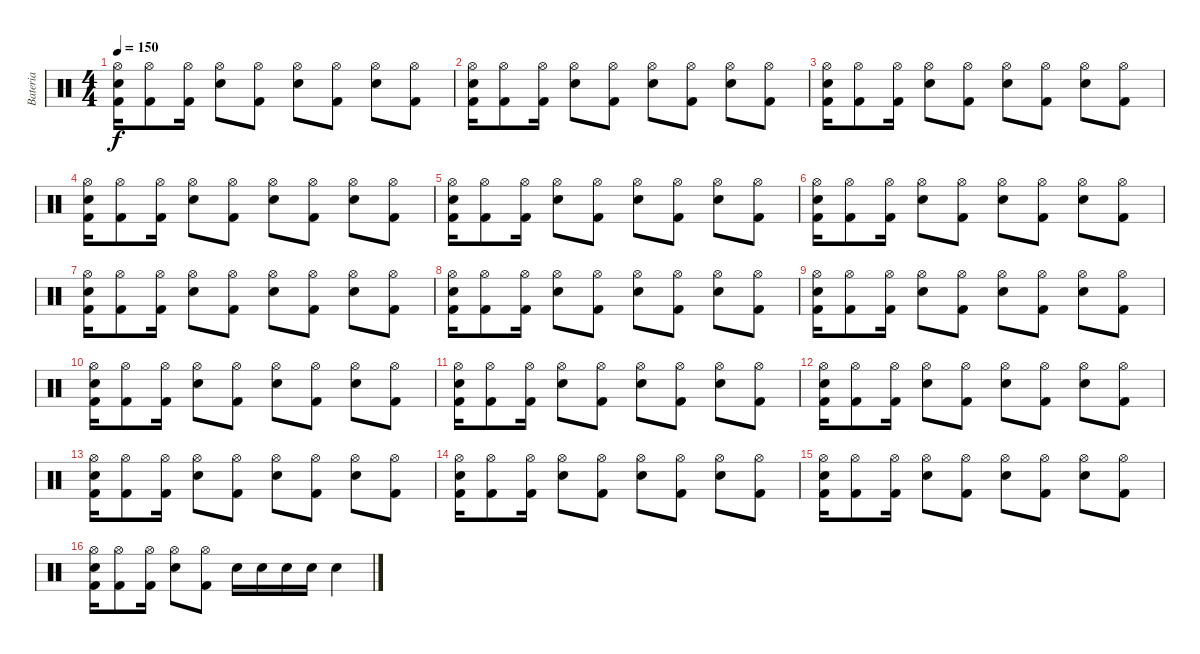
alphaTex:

\track ("Bateria" "Bateria") {instrument percussion}
\staff {score}
\articulation defaults
\ts (4 4)
\tempo 150
\clef neutral
\ks c
("Hi-Hat (open)" "Electric Snare (hit)" "Kick (hit) 2").16{dy f} ("Hi-Hat (open)" "Kick (hit) 2").8 ("Hi-Hat (open)" "Kick (hit) 2").16 ("Hi-Hat (open)" "Electric Snare (hit)").8 ("Hi-Hat (open)" "Kick (hit) 2").8 ("Hi-Hat (open)" "Electric Snare (hit)").8 ("Hi-Hat (open)" "Kick (hit) 2").8 ("Hi-Hat (open)" "Electric Snare (hit)").8 ("Hi-Hat (open)" "Kick (hit) 2").8 |
("Hi-Hat (open)" "Electric Snare (hit)" "Kick (hit) 2").16 ("Hi-Hat (open)" "Kick (hit) 2").8 ("Hi-Hat (open)" "Kick (hit) 2").16 ("Hi-Hat (open)" "Electric Snare (hit)").8 ("Hi-Hat (open)" "Kick (hit) 2").8 ("Hi-Hat (open)" "Electric Snare (hit)").8 ("Hi-Hat (open)" "Kick (hit) 2").8 ("Hi-Hat (open)" "Electric Snare (hit)").8 ("Hi-Hat (open)" "Kick (hit) 2").8 |
("Hi-Hat (open)" "Electric Snare (hit)" "Kick (hit) 2").16 ("Hi-Hat (open)" "Kick (hit) 2").8 ("Hi-Hat (open)" "Kick (hit) 2").16 ("Hi-Hat (open)" "Electric Snare (hit)").8 ("Hi-Hat (open)" "Kick (hit) 2").8 ("Hi-Hat (open)" "Electric Snare (hit)").8 ("Hi-Hat (open)" "Kick (hit) 2").8 ("Hi-Hat (open)" "Electric Snare (hit)").8 ("Hi-Hat (open)" "Kick (hit) 2").8 |
("Hi-Hat (open)" "Electric Snare (hit)" "Kick (hit) 2").16 ("Hi-Hat (open)" "Kick (hit) 2").8 ("Hi-Hat (open)" "Kick (hit) 2").16 ("Hi-Hat (open)" "Electric Snare (hit)").8 ("Hi-Hat (open)" "Kick (hit) 2").8 ("Hi-Hat (open)" "Electric Snare (hit)").8 ("Hi-Hat (open)" "Kick (hit) 2").8 ("Hi-Hat (open)" "Electric Snare (hit)").8 ("Hi-Hat (open)" "Kick (hit) 2").8 |
("Hi-Hat (open)" "Electric Snare (hit)" "Kick (hit) 2").16 ("Hi-Hat (open)" "Kick (hit) 2").8 ("Hi-Hat (open)" "Kick (hit) 2").16 ("Hi-Hat (open)" "Electric Snare (hit)").8 ("Hi-Hat (open)" "Kick (hit) 2").8 ("Hi-Hat (open)" "Electric Snare (hit)").8 ("Hi-Hat (open)" "Kick (hit) 2").8 ("Hi-Hat (open)" "Electric Snare (hit)").8 ("Hi-Hat (open)" "Kick (hit) 2").8 |
("Hi-Hat (open)" "Electric Snare (hit)" "Kick (hit) 2").16 ("Hi-Hat (open)" "Kick (hit) 2").8 ("Hi-Hat (open)" "Kick (hit) 2").16 ("Hi-Hat (open)" "Electric Snare (hit)").8 ("Hi-Hat (open)" "Kick (hit) 2").8 ("Hi-Hat (open)" "Electric Snare (hit)").8 ("Hi-Hat (open)" "Kick (hit) 2").8 ("Hi-Hat (open)" "Electric Snare (hit)").8 ("Hi-Hat (open)" "Kick (hit) 2").8 |
("Hi-Hat (open)" "Electric Snare (hit)" "Kick (hit) 2").16 ("Hi-Hat (open)" "Kick (hit) 2").8 ("Hi-Hat (open)" "Kick (hit) 2").16 ("Hi-Hat (open)" "Electric Snare (hit)").8 ("Hi-Hat (open)" "Kick (hit) 2").8 ("Hi-Hat (open)" "Electric Snare (hit)").8 ("Hi-Hat (open)" "Kick (hit) 2").8 ("Hi-Hat (open)" "Electric Snare (hit)").8 ("Hi-Hat (open)" "Kick (hit) 2").8 |
("Hi-Hat (open)" "Electric Snare (hit)" "Kick (hit) 2").16 ("Hi-Hat (open)" "Kick (hit) 2").8 ("Hi-Hat (open)" "Kick (hit) 2").16 ("Hi-Hat (open)" "Electric Snare (hit)").8 ("Hi-Hat (open)" "Kick (hit) 2").8 ("Hi-Hat (open)" "Electric Snare (hit)").8 ("Hi-Hat (open)" "Kick (hit) 2").8 ("Hi-Hat (open)" "Electric Snare (hit)").8 ("Hi-Hat (open)" "Kick (hit) 2").8 |
("Hi-Hat (open)" "Electric Snare (hit)" "Kick (hit) 2").16 ("Hi-Hat (open)" "Kick (hit) 2").8 ("Hi-Hat (open)" "Kick (hit) 2").16 ("Hi-Hat (open)" "Electric Snare (hit)").8 ("Hi-Hat (open)" "Kick (hit) 2").8 ("Hi-Hat (open)" "Electric Snare (hit)").8 ("Hi-Hat (open)" "Kick (hit) 2").8 ("Hi-Hat (open)" "Electric Snare (hit)").8 ("Hi-Hat (open)" "Kick (hit) 2").8 |
("Hi-Hat (open)" "Electric Snare (hit)" "Kick (hit) 2").16 ("Hi-Hat (open)" "Kick (hit) 2").8 ("Hi-Hat (open)" "Kick (hit) 2").16 ("Hi-Hat (open)" "Electric Snare (hit)").8 ("Hi-Hat (open)" "Kick (hit) 2").8 ("Hi-Hat (open)" "Electric Snare (hit)").8 ("Hi-Hat (open)" "Kick (hit) 2").8 ("Hi-Hat (open)" "Electric Snare (hit)").8 ("Hi-Hat (open)" "Kick (hit) 2").8 |
("Hi-Hat (open)" "Electric Snare (hit)" "Kick (hit) 2").16 ("Hi-Hat (open)" "Kick (hit) 2").8 ("Hi-Hat (open)" "Kick (hit) 2").16 ("Hi-Hat (open)" "Electric Snare (hit)").8 ("Hi-Hat (open)" "Kick (hit) 2").8 ("Hi-Hat (open)" "Electric Snare (hit)").8 ("Hi-Hat (open)" "Kick (hit) 2").8 ("Hi-Hat (open)" "Electric Snare (hit)").8 ("Hi-Hat (open)" "Kick (hit) 2").8 |
("Hi-Hat (open)" "Electric Snare (hit)" "Kick (hit) 2").16 ("Hi-Hat (open)" "Kick (hit) 2").8 ("Hi-Hat (open)" "Kick (hit) 2").16 ("Hi-Hat (open)" "Electric Snare (hit)").8 ("Hi-Hat (open)" "Kick (hit) 2").8 ("Hi-Hat (open)" "Electric Snare (hit)").8 ("Hi-Hat (open)" "Kick (hit) 2").8 ("Hi-Hat (open)" "Electric Snare (hit)").8 ("Hi-Hat (open)" "Kick (hit) 2").8 |
("Hi-Hat (open)" "Electric Snare (hit)" "Kick (hit) 2").16 ("Hi-Hat (open)" "Kick (hit) 2").8 ("Hi-Hat (open)" "Kick (hit) 2").16 ("Hi-Hat (open)" "Electric Snare (hit)").8 ("Hi-Hat (open)" "Kick (hit) 2").8 ("Hi-Hat (open)" "Electric Snare (hit)").8 ("Hi-Hat (open)" "Kick (hit) 2").8 ("Hi-Hat (open)" "Electric Snare (hit)").8 ("Hi-Hat (open)" "Kick (hit) 2").8 |
("Hi-Hat (open)" "Electric Snare (hit)" "Kick (hit) 2").16 ("Hi-Hat (open)" "Kick (hit) 2").8 ("Hi-Hat (open)" "Kick (hit) 2").16 ("Hi-Hat (open)" "Electric Snare (hit)").8 ("Hi-Hat (open)" "Kick (hit) 2").8 ("Hi-Hat (open)" "Electric Snare (hit)").8 ("Hi-Hat (open)" "Kick (hit) 2").8 ("Hi-Hat (open)" "Electric Snare (hit)").8 ("Hi-Hat (open)" "Kick (hit) 2").8 |
("Hi-Hat (open)" "Electric Snare (hit)" "Kick (hit) 2").16 ("Hi-Hat (open)" "Kick (hit) 2").8 ("Hi-Hat (open)" "Kick (hit) 2").16 ("Hi-Hat (open)" "Electric Snare (hit)").8 ("Hi-Hat (open)" "Kick (hit) 2").8 ("Hi-Hat (open)" "Electric Snare (hit)").8 ("Hi-Hat (open)" "Kick (hit) 2").8 ("Hi-Hat (open)" "Electric Snare (hit)").8 ("Hi-Hat (open)" "Kick (hit) 2").8 |
("Hi-Hat (open)" "Electric Snare (hit)" "Kick (hit) 2").16 ("Hi-Hat (open)" "Kick (hit) 2").8 ("Hi-Hat (open)" "Kick (hit) 2").16 ("Hi-Hat (open)" "Electric Snare (hit)").8 ("Hi-Hat (open)" "Kick (hit) 2").8 "Electric Snare (hit)".16 "Electric Snare (hit)".16 "Electric Snare (hit)".16 "Electric Snare (hit)".16 "Electric Snare (hit)".4
